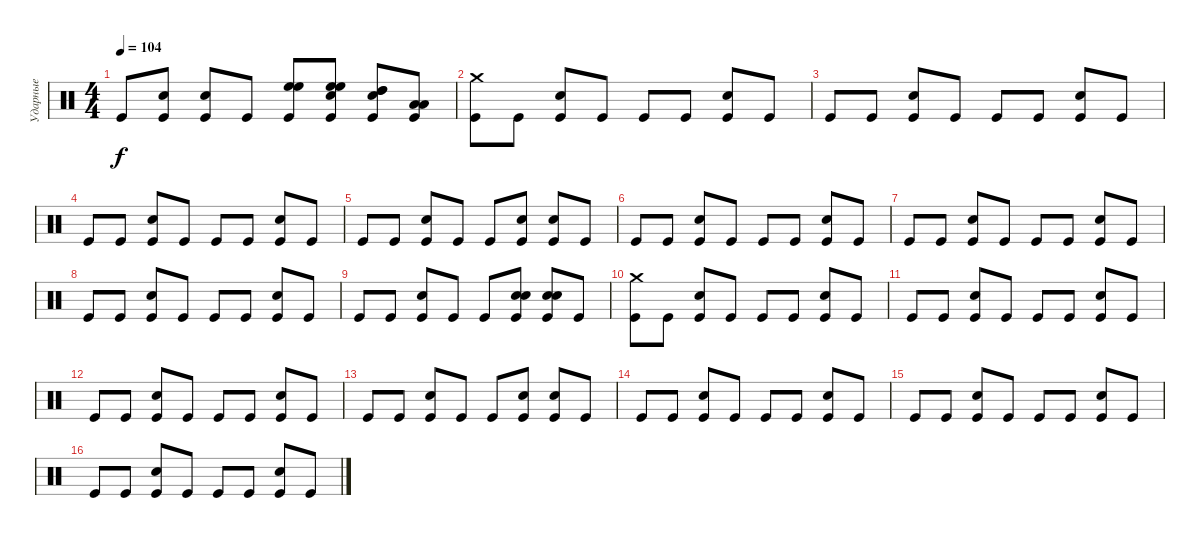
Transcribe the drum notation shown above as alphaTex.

\track ("Ударные" "Ударные") {instrument percussion}
\staff {score}
\articulation defaults
\ts (4 4)
\tempo 104
\clef neutral
\ks c "Kick (hit)".8{dy f}
("Kick (hit)" "Snare (hit) 2").8 ("Snare (hit) 2" "Kick (hit)").8 "Kick (hit)".8 ("High Floor Tom (hit)" "Kick (hit)" "High Floor Tom (hit)").8 ("High Floor Tom (hit)" "Snare (hit) 2" "Kick (hit)" "High Floor Tom (hit)").8 ("High Tom (hit)" "Snare (hit) 2" "Kick (hit)" "High Tom (hit)").8 ("Low Tom (hit)" "Kick (hit)" "Low Tom (hit)").8 |
("Crash medium (hit)" "Kick (hit)").8 "Kick (hit)".8 ("Snare (hit) 2" "Kick (hit)").8 "Kick (hit)".8 "Kick (hit)".8 "Kick (hit)".8 ("Snare (hit) 2" "Kick (hit)").8 "Kick (hit)".8 |
"Kick (hit)".8 "Kick (hit)".8 ("Snare (hit) 2" "Kick (hit)").8 "Kick (hit)".8 "Kick (hit)".8 "Kick (hit)".8 ("Snare (hit) 2" "Kick (hit)").8 "Kick (hit)".8 |
"Kick (hit)".8 "Kick (hit)".8 ("Snare (hit) 2" "Kick (hit)").8 "Kick (hit)".8 "Kick (hit)".8 "Kick (hit)".8 ("Snare (hit) 2" "Kick (hit)").8 "Kick (hit)".8 |
"Kick (hit)".8 "Kick (hit)".8 ("Snare (hit) 2" "Kick (hit)").8 "Kick (hit)".8 "Kick (hit)".8 ("Snare (hit) 2" "Kick (hit)").8 ("Snare (hit) 2" "Kick (hit)").8 "Kick (hit)".8 |
"Kick (hit)".8 "Kick (hit)".8 ("Snare (hit) 2" "Kick (hit)").8 "Kick (hit)".8 "Kick (hit)".8 "Kick (hit)".8 ("Snare (hit) 2" "Kick (hit)").8 "Kick (hit)".8 |
"Kick (hit)".8 "Kick (hit)".8 ("Snare (hit) 2" "Kick (hit)").8 "Kick (hit)".8 "Kick (hit)".8 "Kick (hit)".8 ("Snare (hit) 2" "Kick (hit)").8 "Kick (hit)".8 |
"Kick (hit)".8 "Kick (hit)".8 ("Snare (hit) 2" "Kick (hit)").8 "Kick (hit)".8 "Kick (hit)".8 "Kick (hit)".8 ("Snare (hit) 2" "Kick (hit)").8 "Kick (hit)".8 |
"Kick (hit)".8 "Kick (hit)".8 ("Snare (hit) 2" "Kick (hit)").8 "Kick (hit)".8 "Kick (hit)".8 ("Snare (hit) 2" "Kick (hit)" "Snare (hit) 2").8 ("Kick (hit)" "Snare (hit) 2" "Snare (hit) 2").8 "Kick (hit)".8 |
("Crash medium (hit)" "Kick (hit)").8 "Kick (hit)".8 ("Snare (hit) 2" "Kick (hit)").8 "Kick (hit)".8 "Kick (hit)".8 "Kick (hit)".8 ("Snare (hit) 2" "Kick (hit)").8 "Kick (hit)".8 |
"Kick (hit)".8 "Kick (hit)".8 ("Snare (hit) 2" "Kick (hit)").8 "Kick (hit)".8 "Kick (hit)".8 "Kick (hit)".8 ("Snare (hit) 2" "Kick (hit)").8 "Kick (hit)".8 |
"Kick (hit)".8 "Kick (hit)".8 ("Snare (hit) 2" "Kick (hit)").8 "Kick (hit)".8 "Kick (hit)".8 "Kick (hit)".8 ("Snare (hit) 2" "Kick (hit)").8 "Kick (hit)".8 |
"Kick (hit)".8 "Kick (hit)".8 ("Snare (hit) 2" "Kick (hit)").8 "Kick (hit)".8 "Kick (hit)".8 ("Kick (hit)" "Snare (hit) 2").8 ("Snare (hit) 2" "Kick (hit)").8 "Kick (hit)".8 |
"Kick (hit)".8 "Kick (hit)".8 ("Snare (hit) 2" "Kick (hit)").8 "Kick (hit)".8 "Kick (hit)".8 "Kick (hit)".8 ("Snare (hit) 2" "Kick (hit)").8 "Kick (hit)".8 |
"Kick (hit)".8 "Kick (hit)".8 ("Snare (hit) 2" "Kick (hit)").8 "Kick (hit)".8 "Kick (hit)".8 "Kick (hit)".8 ("Snare (hit) 2" "Kick (hit)").8 "Kick (hit)".8 |
"Kick (hit)".8 "Kick (hit)".8 ("Snare (hit) 2" "Kick (hit)").8 "Kick (hit)".8 "Kick (hit)".8 "Kick (hit)".8 ("Snare (hit) 2" "Kick (hit)").8 "Kick (hit)".8
